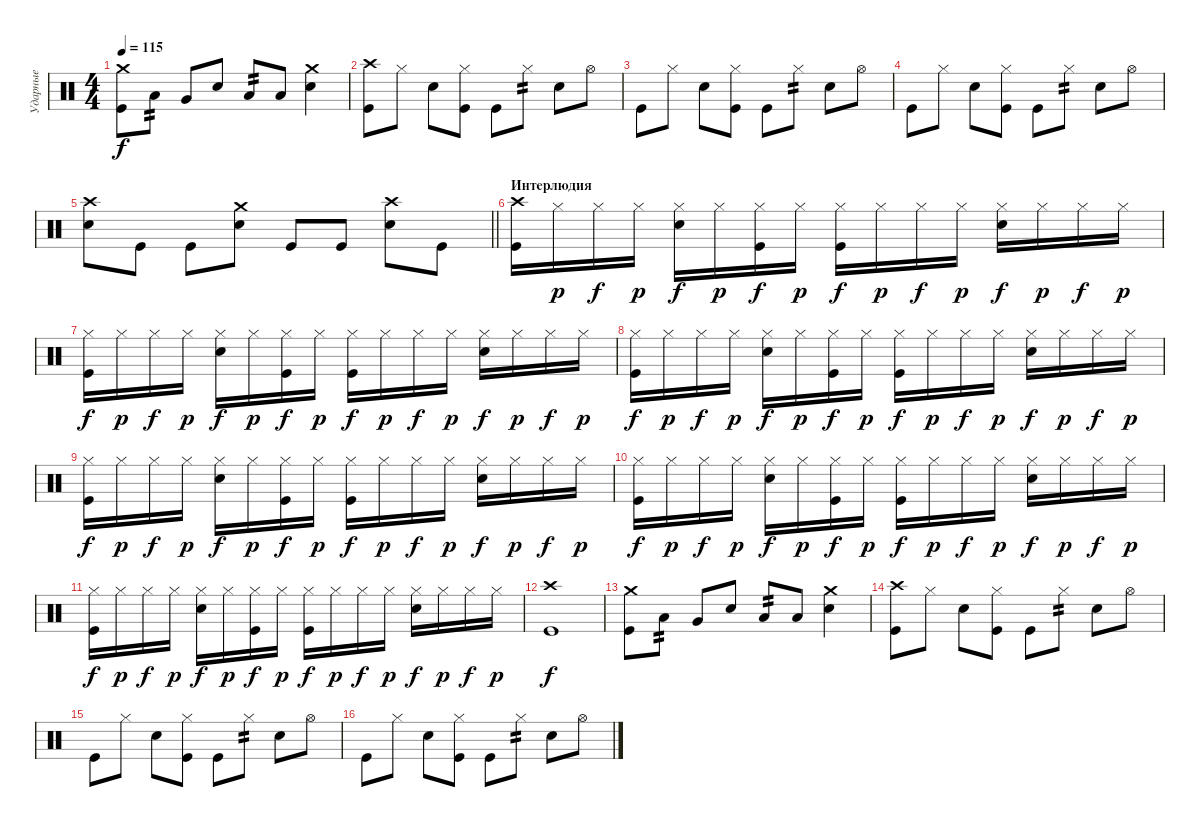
\track ("Ударные" "Ударные") {instrument percussion}
\staff {score}
\articulation defaults
\ts (4 4)
\tempo 115
\clef neutral
\ks c
("Crash medium (hit)" "Kick (hit)").8{dy f} "Low Tom (hit)".8{tp 2} "Very Low Tom (hit)".8 "Snare (hit) 2".8 "Low Tom (hit)".8{tp 2} "Low Tom (hit)".8 ("Crash medium (hit)" "Snare (hit) 2").4 |
("Crash high (hit)" "Kick (hit)").8 "Hi-Hat (closed)".8 "Snare (hit) 2".8 ("Hi-Hat (closed)" "Kick (hit)").8 "Kick (hit)".8 "Hi-Hat (closed)".8{tp 2} "Snare (hit) 2".8 "Hi-Hat (open)".8 |
"Kick (hit)".8 "Hi-Hat (closed)".8 "Snare (hit) 2".8 ("Hi-Hat (closed)" "Kick (hit)").8 "Kick (hit)".8 "Hi-Hat (closed)".8{tp 2} "Snare (hit) 2".8 "Hi-Hat (open)".8 |
"Kick (hit)".8 "Hi-Hat (closed)".8 "Snare (hit) 2".8 ("Hi-Hat (closed)" "Kick (hit)").8 "Kick (hit)".8 "Hi-Hat (closed)".8{tp 2} "Snare (hit) 2".8 "Hi-Hat (open)".8 |
\barLineRight lightlight
("Crash high (hit)" "Snare (hit) 2").8 "Kick (hit)".8 "Kick (hit)".8 ("Crash medium (hit)" "Snare (hit) 2").8 "Kick (hit)".8 "Kick (hit)".8 ("Crash high (hit)" "Snare (hit) 2").8 "Kick (hit)".8 |
\section ("" "Интерлюдия")
("Crash high (hit)" "Kick (hit)").16 "Hi-Hat (closed)".16{dy p} "Hi-Hat (closed)".16{dy f} "Hi-Hat (closed)".16{dy p} ("Hi-Hat (closed)" "Snare (hit) 2").16{dy f} "Hi-Hat (closed)".16{dy p} ("Hi-Hat (closed)" "Kick (hit)").16{dy f} "Hi-Hat (closed)".16{dy p} ("Hi-Hat (closed)" "Kick (hit)").16{dy f} "Hi-Hat (closed)".16{dy p} "Hi-Hat (closed)".16{dy f} "Hi-Hat (closed)".16{dy p} ("Hi-Hat (closed)" "Snare (hit) 2").16{dy f} "Hi-Hat (closed)".16{dy p} "Hi-Hat (closed)".16{dy f} "Hi-Hat (closed)".16{dy p} |
("Hi-Hat (closed)" "Kick (hit)").16{dy f} "Hi-Hat (closed)".16{dy p} "Hi-Hat (closed)".16{dy f} "Hi-Hat (closed)".16{dy p} ("Hi-Hat (closed)" "Snare (hit) 2").16{dy f} "Hi-Hat (closed)".16{dy p} ("Hi-Hat (closed)" "Kick (hit)").16{dy f} "Hi-Hat (closed)".16{dy p} ("Hi-Hat (closed)" "Kick (hit)").16{dy f} "Hi-Hat (closed)".16{dy p} "Hi-Hat (closed)".16{dy f} "Hi-Hat (closed)".16{dy p} ("Hi-Hat (closed)" "Snare (hit) 2").16{dy f} "Hi-Hat (closed)".16{dy p} "Hi-Hat (closed)".16{dy f} "Hi-Hat (closed)".16{dy p} |
("Hi-Hat (closed)" "Kick (hit)").16{dy f} "Hi-Hat (closed)".16{dy p} "Hi-Hat (closed)".16{dy f} "Hi-Hat (closed)".16{dy p} ("Hi-Hat (closed)" "Snare (hit) 2").16{dy f} "Hi-Hat (closed)".16{dy p} ("Hi-Hat (closed)" "Kick (hit)").16{dy f} "Hi-Hat (closed)".16{dy p} ("Hi-Hat (closed)" "Kick (hit)").16{dy f} "Hi-Hat (closed)".16{dy p} "Hi-Hat (closed)".16{dy f} "Hi-Hat (closed)".16{dy p} ("Hi-Hat (closed)" "Snare (hit) 2").16{dy f} "Hi-Hat (closed)".16{dy p} "Hi-Hat (closed)".16{dy f} "Hi-Hat (closed)".16{dy p} |
("Hi-Hat (closed)" "Kick (hit)").16{dy f} "Hi-Hat (closed)".16{dy p} "Hi-Hat (closed)".16{dy f} "Hi-Hat (closed)".16{dy p} ("Hi-Hat (closed)" "Snare (hit) 2").16{dy f} "Hi-Hat (closed)".16{dy p} ("Hi-Hat (closed)" "Kick (hit)").16{dy f} "Hi-Hat (closed)".16{dy p} ("Hi-Hat (closed)" "Kick (hit)").16{dy f} "Hi-Hat (closed)".16{dy p} "Hi-Hat (closed)".16{dy f} "Hi-Hat (closed)".16{dy p} ("Hi-Hat (closed)" "Snare (hit) 2").16{dy f} "Hi-Hat (closed)".16{dy p} "Hi-Hat (closed)".16{dy f} "Hi-Hat (closed)".16{dy p} |
("Hi-Hat (closed)" "Kick (hit)").16{dy f} "Hi-Hat (closed)".16{dy p} "Hi-Hat (closed)".16{dy f} "Hi-Hat (closed)".16{dy p} ("Hi-Hat (closed)" "Snare (hit) 2").16{dy f} "Hi-Hat (closed)".16{dy p} ("Hi-Hat (closed)" "Kick (hit)").16{dy f} "Hi-Hat (closed)".16{dy p} ("Hi-Hat (closed)" "Kick (hit)").16{dy f} "Hi-Hat (closed)".16{dy p} "Hi-Hat (closed)".16{dy f} "Hi-Hat (closed)".16{dy p} ("Hi-Hat (closed)" "Snare (hit) 2").16{dy f} "Hi-Hat (closed)".16{dy p} "Hi-Hat (closed)".16{dy f} "Hi-Hat (closed)".16{dy p} |
("Hi-Hat (closed)" "Kick (hit)").16{dy f} "Hi-Hat (closed)".16{dy p} "Hi-Hat (closed)".16{dy f} "Hi-Hat (closed)".16{dy p} ("Hi-Hat (closed)" "Snare (hit) 2").16{dy f} "Hi-Hat (closed)".16{dy p} ("Hi-Hat (closed)" "Kick (hit)").16{dy f} "Hi-Hat (closed)".16{dy p} ("Hi-Hat (closed)" "Kick (hit)").16{dy f} "Hi-Hat (closed)".16{dy p} "Hi-Hat (closed)".16{dy f} "Hi-Hat (closed)".16{dy p} ("Hi-Hat (closed)" "Snare (hit) 2").16{dy f} "Hi-Hat (closed)".16{dy p} "Hi-Hat (closed)".16{dy f} "Hi-Hat (closed)".16{dy p} |
("Crash high (hit)" "Kick (hit)").1{dy f} |
("Crash medium (hit)" "Kick (hit)").8 "Low Tom (hit)".8{tp 2} "Very Low Tom (hit)".8 "Snare (hit) 2".8 "Low Tom (hit)".8{tp 2} "Low Tom (hit)".8 ("Crash medium (hit)" "Snare (hit) 2").4 |
("Crash high (hit)" "Kick (hit)").8 "Hi-Hat (closed)".8 "Snare (hit) 2".8 ("Hi-Hat (closed)" "Kick (hit)").8 "Kick (hit)".8 "Hi-Hat (closed)".8{tp 2} "Snare (hit) 2".8 "Hi-Hat (open)".8 |
"Kick (hit)".8 "Hi-Hat (closed)".8 "Snare (hit) 2".8 ("Hi-Hat (closed)" "Kick (hit)").8 "Kick (hit)".8 "Hi-Hat (closed)".8{tp 2} "Snare (hit) 2".8 "Hi-Hat (open)".8 |
"Kick (hit)".8 "Hi-Hat (closed)".8 "Snare (hit) 2".8 ("Hi-Hat (closed)" "Kick (hit)").8 "Kick (hit)".8 "Hi-Hat (closed)".8{tp 2} "Snare (hit) 2".8 "Hi-Hat (open)".8
